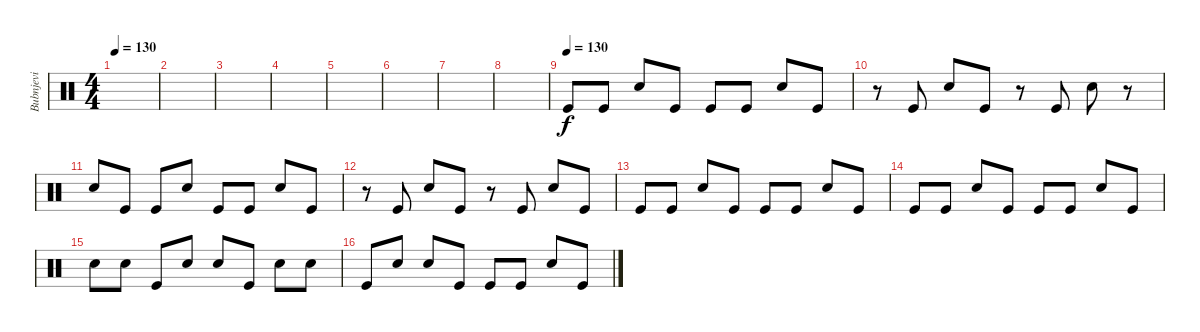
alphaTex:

\track ("Bubnjevi" "Bubnjevi") {instrument percussion}
\staff {score}
\articulation defaults
\ts (4 4)
\tempo 130
\tempo 110
\tempo 130
\clef neutral
\ks c
|
|
|
|
|
|
|
|
\tempo (130)
"Kick (hit)".8 "Kick (hit)".8 "Snare (hit) 2".8 "Kick (hit)".8 "Kick (hit)".8 "Kick (hit)".8 "Snare (hit) 2".8 "Kick (hit)".8 |
r.8 "Kick (hit)".8 "Snare (hit) 2".8 "Kick (hit)".8 r.8 "Kick (hit)".8 "Snare (hit) 2".8 r.8 |
"Snare (hit) 2".8 "Kick (hit)".8 "Kick (hit)".8 "Snare (hit) 2".8 "Kick (hit)".8 "Kick (hit)".8 "Snare (hit) 2".8 "Kick (hit)".8 |
r.8 "Kick (hit)".8 "Snare (hit) 2".8 "Kick (hit)".8 r.8 "Kick (hit)".8 "Snare (hit) 2".8 "Kick (hit)".8 |
"Kick (hit)".8 "Kick (hit)".8 "Snare (hit) 2".8 "Kick (hit)".8 "Kick (hit)".8 "Kick (hit)".8 "Snare (hit) 2".8 "Kick (hit)".8 |
"Kick (hit)".8 "Kick (hit)".8 "Snare (hit) 2".8 "Kick (hit)".8 "Kick (hit)".8 "Kick (hit)".8 "Snare (hit) 2".8 "Kick (hit)".8 |
"Snare (hit) 2".8 "Snare (hit) 2".8 "Kick (hit)".8 "Snare (hit) 2".8 "Snare (hit) 2".8 "Kick (hit)".8 "Snare (hit) 2".8 "Snare (hit) 2".8 |
"Kick (hit)".8 "Snare (hit) 2".8 "Snare (hit) 2".8 "Kick (hit)".8 "Kick (hit)".8 "Kick (hit)".8 "Snare (hit) 2".8 "Kick (hit)".8
